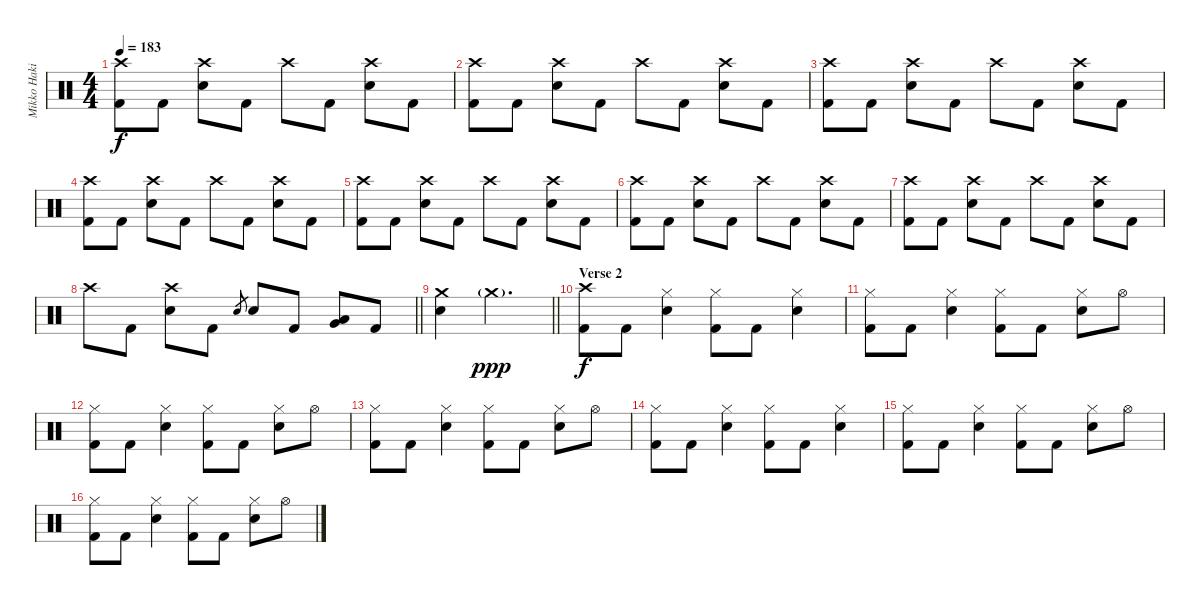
\track ("Mikko Hakila - Drums" "Mikko Haki") {instrument percussion}
\staff {score}
\articulation defaults
\ts (4 4)
\tempo 183
\clef neutral
\ks c
("Crash high (hit)" "Kick (hit) 2").8{dy f} "Kick (hit) 2".8 ("Crash high (hit)" "Electric Snare (hit)").8 "Kick (hit) 2".8 "Crash high (hit)".8 "Kick (hit) 2".8 ("Crash high (hit)" "Electric Snare (hit)").8 "Kick (hit) 2".8 |
("Crash high (hit)" "Kick (hit) 2").8 "Kick (hit) 2".8 ("Crash high (hit)" "Electric Snare (hit)").8 "Kick (hit) 2".8 "Crash high (hit)".8 "Kick (hit) 2".8 ("Crash high (hit)" "Electric Snare (hit)").8 "Kick (hit) 2".8 |
("Crash high (hit)" "Kick (hit) 2").8 "Kick (hit) 2".8 ("Crash high (hit)" "Electric Snare (hit)").8 "Kick (hit) 2".8 "Crash high (hit)".8 "Kick (hit) 2".8 ("Crash high (hit)" "Electric Snare (hit)").8 "Kick (hit) 2".8 |
("Crash high (hit)" "Kick (hit) 2").8 "Kick (hit) 2".8 ("Crash high (hit)" "Electric Snare (hit)").8 "Kick (hit) 2".8 "Crash high (hit)".8 "Kick (hit) 2".8 ("Crash high (hit)" "Electric Snare (hit)").8 "Kick (hit) 2".8 |
("Crash high (hit)" "Kick (hit) 2").8 "Kick (hit) 2".8 ("Crash high (hit)" "Electric Snare (hit)").8 "Kick (hit) 2".8 "Crash high (hit)".8 "Kick (hit) 2".8 ("Crash high (hit)" "Electric Snare (hit)").8 "Kick (hit) 2".8 |
("Crash high (hit)" "Kick (hit) 2").8 "Kick (hit) 2".8 ("Crash high (hit)" "Electric Snare (hit)").8 "Kick (hit) 2".8 "Crash high (hit)".8 "Kick (hit) 2".8 ("Crash high (hit)" "Electric Snare (hit)").8 "Kick (hit) 2".8 |
("Crash high (hit)" "Kick (hit) 2").8 "Kick (hit) 2".8 ("Crash high (hit)" "Electric Snare (hit)").8 "Kick (hit) 2".8 "Crash high (hit)".8 "Kick (hit) 2".8 ("Crash high (hit)" "Electric Snare (hit)").8 "Kick (hit) 2".8 |
\barLineRight lightlight "Crash high (hit)".8 "Kick (hit) 2".8
("Crash high (hit)" "Electric Snare (hit)").8 "Kick (hit) 2".8 "Electric Snare (hit)".8{gr} "Electric Snare (hit)".8 "Kick (hit) 2".8 ("Low Tom (hit)" "Very Low Tom (hit)").8 "Kick (hit) 2".8 |
\barLineRight lightlight
("Crash medium (hit)" "Electric Snare (hit)").4 "Crash medium (hit)"{g}.2{d dy ppp} |
\section ("" "Verse 2")
("Crash high (hit)" "Kick (hit) 2").8{dy f} "Kick (hit) 2".8 ("Hi-Hat (closed)" "Electric Snare (hit)").4 ("Hi-Hat (closed)" "Kick (hit) 2").8 "Kick (hit) 2".8 ("Hi-Hat (closed)" "Electric Snare (hit)").4 |
("Hi-Hat (closed)" "Kick (hit) 2").8 "Kick (hit) 2".8 ("Hi-Hat (closed)" "Electric Snare (hit)").4 ("Hi-Hat (closed)" "Kick (hit) 2").8 "Kick (hit) 2".8 ("Hi-Hat (closed)" "Electric Snare (hit)").8 "Hi-Hat (open)".8 |
("Hi-Hat (closed)" "Kick (hit) 2").8 "Kick (hit) 2".8 ("Hi-Hat (closed)" "Electric Snare (hit)").4 ("Hi-Hat (closed)" "Kick (hit) 2").8 "Kick (hit) 2".8 ("Hi-Hat (closed)" "Electric Snare (hit)").8 "Hi-Hat (open)".8 |
("Hi-Hat (closed)" "Kick (hit) 2").8 "Kick (hit) 2".8 ("Hi-Hat (closed)" "Electric Snare (hit)").4 ("Hi-Hat (closed)" "Kick (hit) 2").8 "Kick (hit) 2".8 ("Hi-Hat (closed)" "Electric Snare (hit)").8 "Hi-Hat (open)".8 |
("Hi-Hat (closed)" "Kick (hit) 2").8 "Kick (hit) 2".8 ("Hi-Hat (closed)" "Electric Snare (hit)").4 ("Hi-Hat (closed)" "Kick (hit) 2").8 "Kick (hit) 2".8 ("Hi-Hat (closed)" "Electric Snare (hit)").4 |
("Hi-Hat (closed)" "Kick (hit) 2").8 "Kick (hit) 2".8 ("Hi-Hat (closed)" "Electric Snare (hit)").4 ("Hi-Hat (closed)" "Kick (hit) 2").8 "Kick (hit) 2".8 ("Hi-Hat (closed)" "Electric Snare (hit)").8 "Hi-Hat (open)".8 |
("Hi-Hat (closed)" "Kick (hit) 2").8 "Kick (hit) 2".8 ("Hi-Hat (closed)" "Electric Snare (hit)").4 ("Hi-Hat (closed)" "Kick (hit) 2").8 "Kick (hit) 2".8 ("Hi-Hat (closed)" "Electric Snare (hit)").8 "Hi-Hat (open)".8
